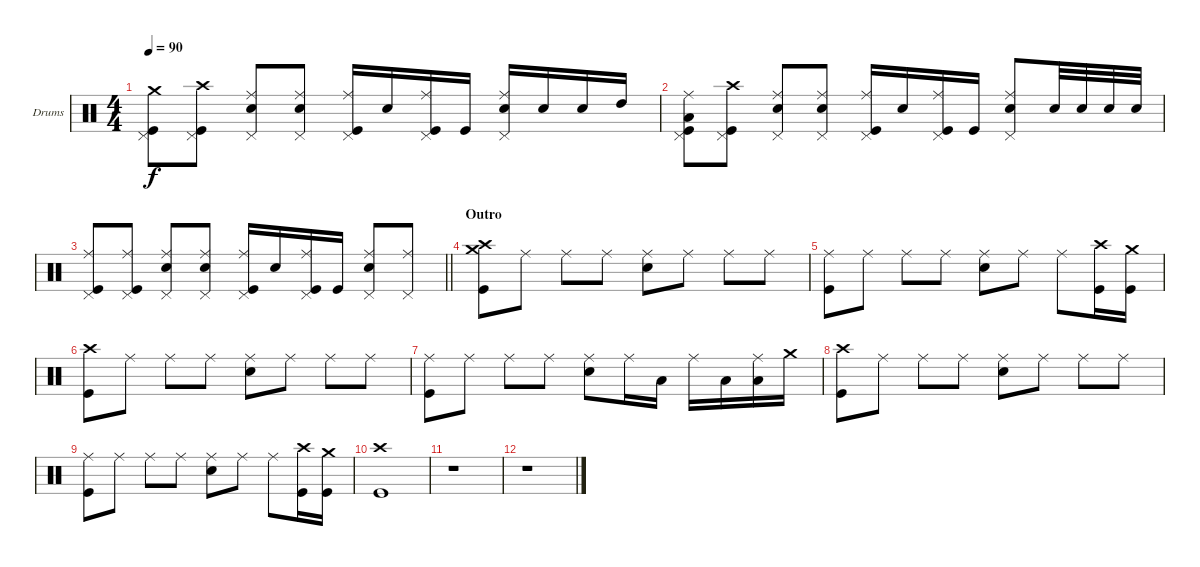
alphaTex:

\bracketExtendMode groupsimilarinstruments
\firstSystemTrackNameOrientation horizontal
\otherSystemsTrackNameOrientation horizontal
\track ("Rian Dawson" "Drums") {instrument percussion}
\staff {score}
\articulation defaults
\ts (4 4)
\tempo 90
\clef neutral
\scale
0.333333
\ks c
("Crash medium (hit)" "Pedal Hi-Hat (hit)" "Kick (hit)").8{dy f} ("Crash high (hit)" "Pedal Hi-Hat (hit)" "Kick (hit)").8 ("Ride (middle)" "Pedal Hi-Hat (hit)" "Snare (hit) 2").8 ("Ride (middle)" "Pedal Hi-Hat (hit)" "Snare (hit) 2").8 ("Ride (middle)" "Pedal Hi-Hat (hit)" "Kick (hit)").16 "Snare (hit) 2".16 ("Ride (middle)" "Pedal Hi-Hat (hit)" "Kick (hit)").16 "Kick (hit)".16 ("Ride (middle)" "Pedal Hi-Hat (hit)" "Snare (hit) 2").16 "Snare (hit) 2".16 "Snare (hit) 2".16 "High Tom (hit)".16 |
\scale
0.333333 ("Ride (middle)" "Pedal Hi-Hat (hit)" "Low Tom (hit)" "Kick (hit)").8 ("Crash high (hit)" "Pedal Hi-Hat (hit)" "Kick (hit)").8 ("Ride (middle)" "Pedal Hi-Hat (hit)" "Snare (hit) 2").8 ("Ride (middle)" "Pedal Hi-Hat (hit)" "Snare (hit) 2").8 ("Ride (middle)" "Pedal Hi-Hat (hit)" "Kick (hit)").16 "Snare (hit) 2".16 ("Ride (middle)" "Pedal Hi-Hat (hit)" "Kick (hit)").16 "Kick (hit)".16 ("Ride (middle)" "Pedal Hi-Hat (hit)" "Snare (hit) 2").8 "Snare (hit) 2".32 "Snare (hit) 2".32 "Snare (hit) 2".32 "Snare (hit) 2".32 |
\scale
0.333333
\barLineRight lightlight
("Ride (middle)" "Pedal Hi-Hat (hit)" "Kick (hit)").8 ("Ride (middle)" "Pedal Hi-Hat (hit)" "Kick (hit)").8 ("Ride (middle)" "Pedal Hi-Hat (hit)" "Snare (hit) 2").8 ("Ride (middle)" "Pedal Hi-Hat (hit)" "Snare (hit) 2").8 ("Ride (middle)" "Pedal Hi-Hat (hit)" "Kick (hit)").16 "Snare (hit) 2".16 ("Ride (middle)" "Pedal Hi-Hat (hit)" "Kick (hit)").16 "Kick (hit)".16 ("Ride (middle)" "Pedal Hi-Hat (hit)" "Snare (hit) 2").8 ("Ride (middle)" "Pedal Hi-Hat (hit)").8 |
\section ("" "Outro")
\scale
0.333333 ("Crash high (hit)" "Crash medium (hit)" "Kick (hit)").8 "Ride (middle)".8 "Ride (middle)".8 "Ride (middle)".8 ("Ride (middle)" "Snare (hit) 2").8 "Ride (middle)".8 "Ride (middle)".8 "Ride (middle)".8 |
\scale
0.333333 ("Ride (middle)" "Kick (hit)").8 "Ride (middle)".8 "Ride (middle)".8 "Ride (middle)".8 ("Ride (middle)" "Snare (hit) 2").8 "Ride (middle)".8 "Ride (middle)".8 ("Crash high (hit)" "Kick (hit)").16 ("Crash medium (hit)" "Kick (hit)").16 |
\scale
0.333333 ("Crash high (hit)" "Kick (hit)").8 "Ride (middle)".8 "Ride (middle)".8 "Ride (middle)".8 ("Ride (middle)" "Snare (hit) 2").8 "Ride (middle)".8 "Ride (middle)".8 "Ride (middle)".8 |
\scale
0.333333 ("Ride (middle)" "Kick (hit)").8 "Ride (middle)".8 "Ride (middle)".8 "Ride (middle)".8 ("Ride (middle)" "Snare (hit) 2").8 "Ride (middle)".16 "Low Tom (hit)".16 "Ride (middle)".16 "Low Tom (hit)".16 ("Ride (middle)" "Low Tom (hit)").16 "Crash medium (hit)".16 |
\scale
0.333333 ("Crash high (hit)" "Kick (hit)").8 "Ride (middle)".8 "Ride (middle)".8 "Ride (middle)".8 ("Ride (middle)" "Snare (hit) 2").8 "Ride (middle)".8 "Ride (middle)".8 "Ride (middle)".8 |
\scale
0.333333 ("Ride (middle)" "Kick (hit)").8 "Ride (middle)".8 "Ride (middle)".8 "Ride (middle)".8 ("Ride (middle)" "Snare (hit) 2").8 "Ride (middle)".8 "Ride (middle)".8 ("Crash high (hit)" "Kick (hit)").16 ("Crash medium (hit)" "Kick (hit)").16 |
\scale
0.333333 ("Crash high (hit)" "Kick (hit)").1 |
\scale
0.333333 r.1 |
r.1
